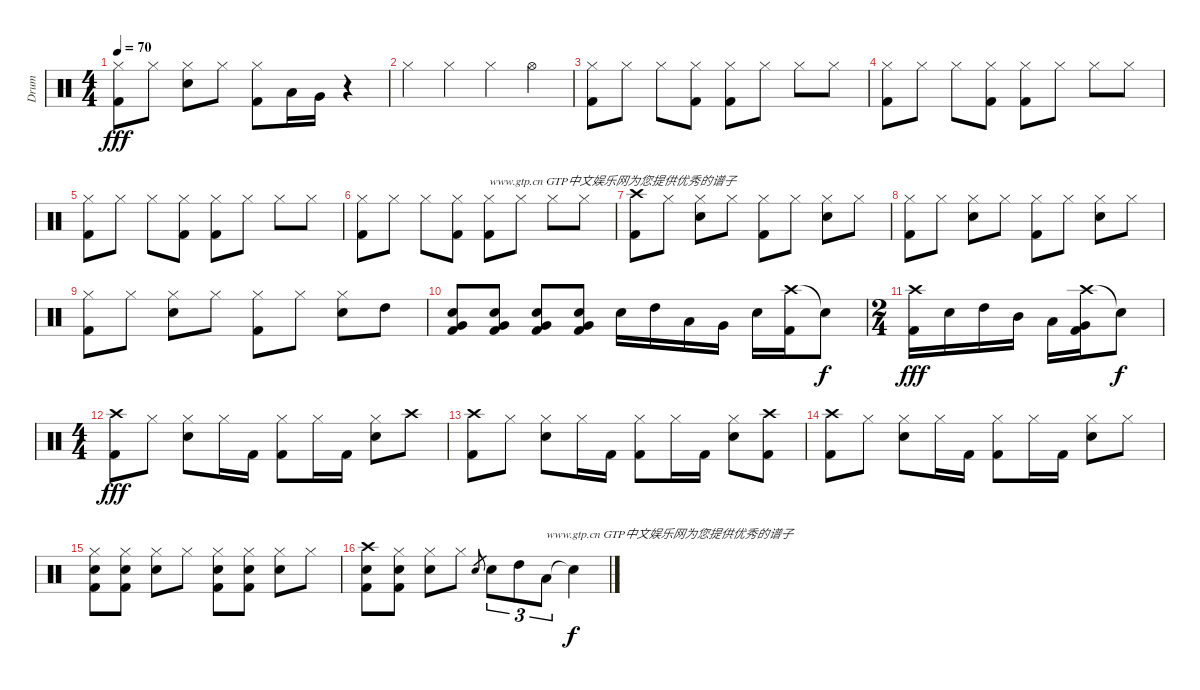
\track ("Drum" "Drum") {instrument percussion}
\staff {score}
\articulation defaults
\ts (4 4)
\tempo 70
\clef neutral
\ks c
("Hi-Hat (closed)" "Kick (hit) 2").8{dy fff} "Hi-Hat (closed)".8 ("Hi-Hat (closed)" "Electric Snare (hit)").8 "Hi-Hat (closed)".8 ("Hi-Hat (closed)" "Kick (hit) 2").8 "Low Tom (hit)".16 "Very Low Tom (hit)".16 r.4 |
"Hi-Hat (closed)".4 "Hi-Hat (closed)".4 "Hi-Hat (closed)".4 "Hi-Hat (open)".4 |
("Hi-Hat (closed)" "Kick (hit) 2").8 "Hi-Hat (closed)".8 "Hi-Hat (closed)".8 ("Hi-Hat (closed)" "Kick (hit) 2").8 ("Hi-Hat (closed)" "Kick (hit) 2").8 "Hi-Hat (closed)".8 "Hi-Hat (closed)".8 "Hi-Hat (closed)".8 |
("Hi-Hat (closed)" "Kick (hit) 2").8 "Hi-Hat (closed)".8 "Hi-Hat (closed)".8 ("Hi-Hat (closed)" "Kick (hit) 2").8 ("Hi-Hat (closed)" "Kick (hit) 2").8 "Hi-Hat (closed)".8 "Hi-Hat (closed)".8 "Hi-Hat (closed)".8 |
("Hi-Hat (closed)" "Kick (hit) 2").8 "Hi-Hat (closed)".8 "Hi-Hat (closed)".8 ("Hi-Hat (closed)" "Kick (hit) 2").8 ("Hi-Hat (closed)" "Kick (hit) 2").8 "Hi-Hat (closed)".8 "Hi-Hat (closed)".8 "Hi-Hat (closed)".8 |
("Hi-Hat (closed)" "Kick (hit) 2").8 "Hi-Hat (closed)".8 "Hi-Hat (closed)".8 ("Hi-Hat (closed)" "Kick (hit) 2").8 ("Hi-Hat (closed)" "Kick (hit) 2").8{txt "www.gtp.cn GTP中文娱乐网为您提供优秀的谱子"} "Hi-Hat (closed)".8 "Hi-Hat (closed)".8 "Hi-Hat (closed)".8 |
("Crash high (hit)" "Kick (hit) 2").8 "Hi-Hat (closed)".8 ("Hi-Hat (closed)" "Electric Snare (hit)").8 "Hi-Hat (closed)".8 ("Hi-Hat (closed)" "Kick (hit) 2").8 "Hi-Hat (closed)".8 ("Hi-Hat (closed)" "Electric Snare (hit)").8 "Hi-Hat (closed)".8 |
("Hi-Hat (closed)" "Kick (hit) 2").8 "Hi-Hat (closed)".8 ("Hi-Hat (closed)" "Electric Snare (hit)").8 "Hi-Hat (closed)".8 ("Hi-Hat (closed)" "Kick (hit) 2").8 "Hi-Hat (closed)".8 ("Hi-Hat (closed)" "Electric Snare (hit)").8 "Hi-Hat (closed)".8 |
("Hi-Hat (closed)" "Kick (hit) 2").8 "Hi-Hat (closed)".8 ("Hi-Hat (closed)" "Electric Snare (hit)").8 "Hi-Hat (closed)".8 ("Hi-Hat (closed)" "Kick (hit) 2").8 "Hi-Hat (closed)".8 ("Hi-Hat (closed)" "Electric Snare (hit)").8 "High Tom (hit)".8 |
("Electric Snare (hit)" "Very Low Tom (hit)" "Kick (hit) 2").8 ("Electric Snare (hit)" "Very Low Tom (hit)" "Kick (hit) 2").8 ("Electric Snare (hit)" "Very Low Tom (hit)" "Kick (hit) 2").8 ("Electric Snare (hit)" "Very Low Tom (hit)" "Kick (hit) 2").8 "Electric Snare (hit)".16 "High Tom (hit)".16 "Low Tom (hit)".16 "Very Low Tom (hit)".16 "Electric Snare (hit)".16 ("Crash high (hit)" "Kick (hit) 2").16 "Snare (hit)"{t}.8{dy f} |
\ts (2 4)
("Crash high (hit)" "Kick (hit) 2").16{dy fff} "Electric Snare (hit)".16 "High Tom (hit)".16 "Mid Tom (hit)".16 "Low Tom (hit)".16 ("Crash high (hit)" "Very Low Tom (hit)" "Kick (hit) 2").16 "Snare (hit)"{t}.8{dy f} |
\ts (4 4)
("Crash high (hit)" "Kick (hit) 2").8{dy fff} "Hi-Hat (closed)".8 ("Hi-Hat (closed)" "Electric Snare (hit)").8 "Hi-Hat (closed)".16 "Kick (hit) 2".16 ("Hi-Hat (closed)" "Kick (hit) 2").8 "Hi-Hat (closed)".16 "Kick (hit) 2".16 ("Hi-Hat (closed)" "Electric Snare (hit)").8 "Crash high (hit)".8 |
("Crash high (hit)" "Kick (hit) 2").8 "Hi-Hat (closed)".8 ("Hi-Hat (closed)" "Electric Snare (hit)").8 "Hi-Hat (closed)".16 "Kick (hit) 2".16 ("Hi-Hat (closed)" "Kick (hit) 2").8 "Hi-Hat (closed)".16 "Kick (hit) 2".16 ("Hi-Hat (closed)" "Electric Snare (hit)").8 ("Crash high (hit)" "Kick (hit) 2").8 |
("Crash high (hit)" "Kick (hit) 2").8 "Hi-Hat (closed)".8 ("Hi-Hat (closed)" "Electric Snare (hit)").8 "Hi-Hat (closed)".16 "Kick (hit) 2".16 ("Hi-Hat (closed)" "Kick (hit) 2").8 "Hi-Hat (closed)".16 "Kick (hit) 2".16 ("Hi-Hat (closed)" "Electric Snare (hit)").8 "Hi-Hat (closed)".8 |
("Hi-Hat (closed)" "Electric Snare (hit)" "Kick (hit) 2").8 ("Hi-Hat (closed)" "Electric Snare (hit)" "Kick (hit) 2").8 ("Hi-Hat (closed)" "Electric Snare (hit)").8 "Hi-Hat (closed)".8 ("Hi-Hat (closed)" "Electric Snare (hit)" "Kick (hit) 2").8 ("Hi-Hat (closed)" "Electric Snare (hit)" "Kick (hit) 2").8 ("Hi-Hat (closed)" "Electric Snare (hit)").8 "Hi-Hat (closed)".8 |
("Crash high (hit)" "Electric Snare (hit)" "Kick (hit) 2").8 ("Hi-Hat (closed)" "Electric Snare (hit)" "Kick (hit) 2").8 ("Hi-Hat (closed)" "Electric Snare (hit)").8 "Hi-Hat (closed)".8 "Electric Snare (hit)".8{gr} "Electric Snare (hit)".8{tu (3 2)} "High Tom (hit)".8{tu (3 2)} "Low Tom (hit)".8{tu (3 2) txt "www.gtp.cn GTP中文娱乐网为您提供优秀的谱子"} "Snare (hit)"{t}.4{dy f}
